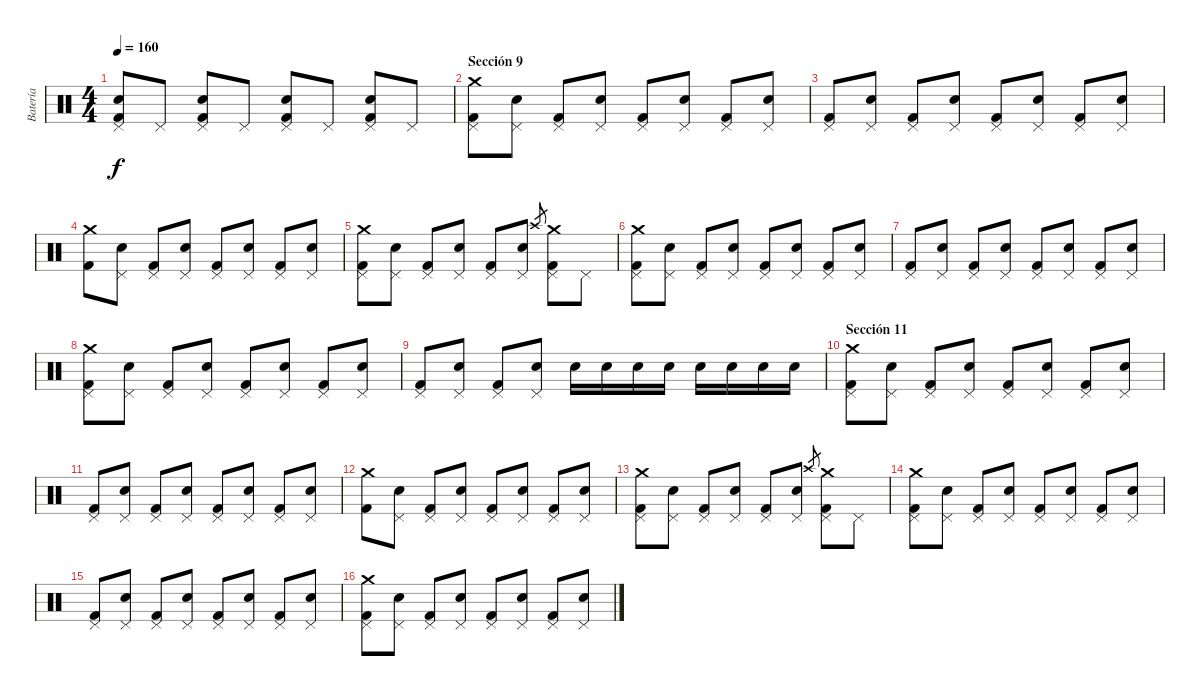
\track ("Batería" "Batería") {instrument percussion}
\staff {score}
\articulation defaults
\ts (4 4)
\tempo 160
\clef neutral
\ks c
("Pedal Hi-Hat (hit)" "Electric Snare (hit)" "Kick (hit) 2").8{dy f} "Pedal Hi-Hat (hit)".8 ("Pedal Hi-Hat (hit)" "Electric Snare (hit)" "Kick (hit) 2").8 "Pedal Hi-Hat (hit)".8 ("Pedal Hi-Hat (hit)" "Electric Snare (hit)" "Kick (hit) 2").8 "Pedal Hi-Hat (hit)".8 ("Pedal Hi-Hat (hit)" "Electric Snare (hit)" "Kick (hit) 2").8 "Pedal Hi-Hat (hit)".8 |
\section ("" "Sección 9")
("Pedal Hi-Hat (hit)" "Crash medium (hit)" "Kick (hit) 2").8 ("Pedal Hi-Hat (hit)" "Electric Snare (hit)").8 ("Pedal Hi-Hat (hit)" "Kick (hit) 2").8 ("Pedal Hi-Hat (hit)" "Electric Snare (hit)").8 ("Pedal Hi-Hat (hit)" "Kick (hit) 2").8 ("Pedal Hi-Hat (hit)" "Electric Snare (hit)").8 ("Pedal Hi-Hat (hit)" "Kick (hit) 2").8 ("Pedal Hi-Hat (hit)" "Electric Snare (hit)").8 |
("Pedal Hi-Hat (hit)" "Kick (hit) 2").8 ("Pedal Hi-Hat (hit)" "Electric Snare (hit)").8 ("Pedal Hi-Hat (hit)" "Kick (hit) 2").8 ("Pedal Hi-Hat (hit)" "Electric Snare (hit)").8 ("Pedal Hi-Hat (hit)" "Kick (hit) 2").8 ("Pedal Hi-Hat (hit)" "Electric Snare (hit)").8 ("Pedal Hi-Hat (hit)" "Kick (hit) 2").8 ("Pedal Hi-Hat (hit)" "Electric Snare (hit)").8 |
("Crash medium (hit)" "Kick (hit) 2").8 ("Pedal Hi-Hat (hit)" "Electric Snare (hit)").8 ("Pedal Hi-Hat (hit)" "Kick (hit) 2").8 ("Pedal Hi-Hat (hit)" "Electric Snare (hit)").8 ("Pedal Hi-Hat (hit)" "Kick (hit) 2").8 ("Pedal Hi-Hat (hit)" "Electric Snare (hit)").8 ("Pedal Hi-Hat (hit)" "Kick (hit) 2").8 ("Pedal Hi-Hat (hit)" "Electric Snare (hit)").8 |
("Pedal Hi-Hat (hit)" "Crash medium (hit)" "Kick (hit) 2").8 ("Pedal Hi-Hat (hit)" "Electric Snare (hit)").8 ("Pedal Hi-Hat (hit)" "Kick (hit) 2").8 ("Pedal Hi-Hat (hit)" "Electric Snare (hit)").8 ("Pedal Hi-Hat (hit)" "Kick (hit) 2").8 ("Pedal Hi-Hat (hit)" "Electric Snare (hit)").8 "Crash high (hit)".8{gr} ("Pedal Hi-Hat (hit)" "Crash medium (hit)" "Kick (hit) 2").8 "Pedal Hi-Hat (hit)".8 |
("Pedal Hi-Hat (hit)" "Crash medium (hit)" "Kick (hit) 2").8 ("Pedal Hi-Hat (hit)" "Electric Snare (hit)").8 ("Pedal Hi-Hat (hit)" "Kick (hit) 2").8 ("Pedal Hi-Hat (hit)" "Electric Snare (hit)").8 ("Pedal Hi-Hat (hit)" "Kick (hit) 2").8 ("Pedal Hi-Hat (hit)" "Electric Snare (hit)").8 ("Pedal Hi-Hat (hit)" "Kick (hit) 2").8 ("Pedal Hi-Hat (hit)" "Electric Snare (hit)").8 |
("Pedal Hi-Hat (hit)" "Kick (hit) 2").8 ("Pedal Hi-Hat (hit)" "Electric Snare (hit)").8 ("Pedal Hi-Hat (hit)" "Kick (hit) 2").8 ("Pedal Hi-Hat (hit)" "Electric Snare (hit)").8 ("Pedal Hi-Hat (hit)" "Kick (hit) 2").8 ("Pedal Hi-Hat (hit)" "Electric Snare (hit)").8 ("Pedal Hi-Hat (hit)" "Kick (hit) 2").8 ("Pedal Hi-Hat (hit)" "Electric Snare (hit)").8 |
("Pedal Hi-Hat (hit)" "Crash medium (hit)" "Kick (hit) 2").8 ("Pedal Hi-Hat (hit)" "Electric Snare (hit)").8 ("Pedal Hi-Hat (hit)" "Kick (hit) 2").8 ("Pedal Hi-Hat (hit)" "Electric Snare (hit)").8 ("Pedal Hi-Hat (hit)" "Kick (hit) 2").8 ("Pedal Hi-Hat (hit)" "Electric Snare (hit)").8 ("Pedal Hi-Hat (hit)" "Kick (hit) 2").8 ("Pedal Hi-Hat (hit)" "Electric Snare (hit)").8 |
("Pedal Hi-Hat (hit)" "Kick (hit) 2").8 ("Pedal Hi-Hat (hit)" "Electric Snare (hit)").8 ("Pedal Hi-Hat (hit)" "Kick (hit) 2").8 ("Pedal Hi-Hat (hit)" "Electric Snare (hit)").8 "Electric Snare (hit)".16 "Electric Snare (hit)".16 "Electric Snare (hit)".16 "Electric Snare (hit)".16 "Electric Snare (hit)".16 "Electric Snare (hit)".16 "Electric Snare (hit)".16 "Electric Snare (hit)".16 |
\section ("" "Sección 11")
("Pedal Hi-Hat (hit)" "Crash medium (hit)" "Kick (hit) 2").8 ("Pedal Hi-Hat (hit)" "Electric Snare (hit)").8 ("Pedal Hi-Hat (hit)" "Kick (hit) 2").8 ("Pedal Hi-Hat (hit)" "Electric Snare (hit)").8 ("Pedal Hi-Hat (hit)" "Kick (hit) 2").8 ("Pedal Hi-Hat (hit)" "Electric Snare (hit)").8 ("Pedal Hi-Hat (hit)" "Kick (hit) 2").8 ("Pedal Hi-Hat (hit)" "Electric Snare (hit)").8 |
("Pedal Hi-Hat (hit)" "Kick (hit) 2").8 ("Pedal Hi-Hat (hit)" "Electric Snare (hit)").8 ("Pedal Hi-Hat (hit)" "Kick (hit) 2").8 ("Pedal Hi-Hat (hit)" "Electric Snare (hit)").8 ("Pedal Hi-Hat (hit)" "Kick (hit) 2").8 ("Pedal Hi-Hat (hit)" "Electric Snare (hit)").8 ("Pedal Hi-Hat (hit)" "Kick (hit) 2").8 ("Pedal Hi-Hat (hit)" "Electric Snare (hit)").8 |
("Crash medium (hit)" "Kick (hit) 2").8 ("Pedal Hi-Hat (hit)" "Electric Snare (hit)").8 ("Pedal Hi-Hat (hit)" "Kick (hit) 2").8 ("Pedal Hi-Hat (hit)" "Electric Snare (hit)").8 ("Pedal Hi-Hat (hit)" "Kick (hit) 2").8 ("Pedal Hi-Hat (hit)" "Electric Snare (hit)").8 ("Pedal Hi-Hat (hit)" "Kick (hit) 2").8 ("Pedal Hi-Hat (hit)" "Electric Snare (hit)").8 |
("Pedal Hi-Hat (hit)" "Crash medium (hit)" "Kick (hit) 2").8 ("Pedal Hi-Hat (hit)" "Electric Snare (hit)").8 ("Pedal Hi-Hat (hit)" "Kick (hit) 2").8 ("Pedal Hi-Hat (hit)" "Electric Snare (hit)").8 ("Pedal Hi-Hat (hit)" "Kick (hit) 2").8 ("Pedal Hi-Hat (hit)" "Electric Snare (hit)").8 "Crash high (hit)".8{gr} ("Pedal Hi-Hat (hit)" "Crash medium (hit)" "Kick (hit) 2").8 "Pedal Hi-Hat (hit)".8 |
("Pedal Hi-Hat (hit)" "Crash medium (hit)" "Kick (hit) 2").8 ("Pedal Hi-Hat (hit)" "Electric Snare (hit)").8 ("Pedal Hi-Hat (hit)" "Kick (hit) 2").8 ("Pedal Hi-Hat (hit)" "Electric Snare (hit)").8 ("Pedal Hi-Hat (hit)" "Kick (hit) 2").8 ("Pedal Hi-Hat (hit)" "Electric Snare (hit)").8 ("Pedal Hi-Hat (hit)" "Kick (hit) 2").8 ("Pedal Hi-Hat (hit)" "Electric Snare (hit)").8 |
("Pedal Hi-Hat (hit)" "Kick (hit) 2").8 ("Pedal Hi-Hat (hit)" "Electric Snare (hit)").8 ("Pedal Hi-Hat (hit)" "Kick (hit) 2").8 ("Pedal Hi-Hat (hit)" "Electric Snare (hit)").8 ("Pedal Hi-Hat (hit)" "Kick (hit) 2").8 ("Pedal Hi-Hat (hit)" "Electric Snare (hit)").8 ("Pedal Hi-Hat (hit)" "Kick (hit) 2").8 ("Pedal Hi-Hat (hit)" "Electric Snare (hit)").8 |
("Pedal Hi-Hat (hit)" "Crash medium (hit)" "Kick (hit) 2").8 ("Pedal Hi-Hat (hit)" "Electric Snare (hit)").8 ("Pedal Hi-Hat (hit)" "Kick (hit) 2").8 ("Pedal Hi-Hat (hit)" "Electric Snare (hit)").8 ("Pedal Hi-Hat (hit)" "Kick (hit) 2").8 ("Pedal Hi-Hat (hit)" "Electric Snare (hit)").8 ("Pedal Hi-Hat (hit)" "Kick (hit) 2").8 ("Pedal Hi-Hat (hit)" "Electric Snare (hit)").8
